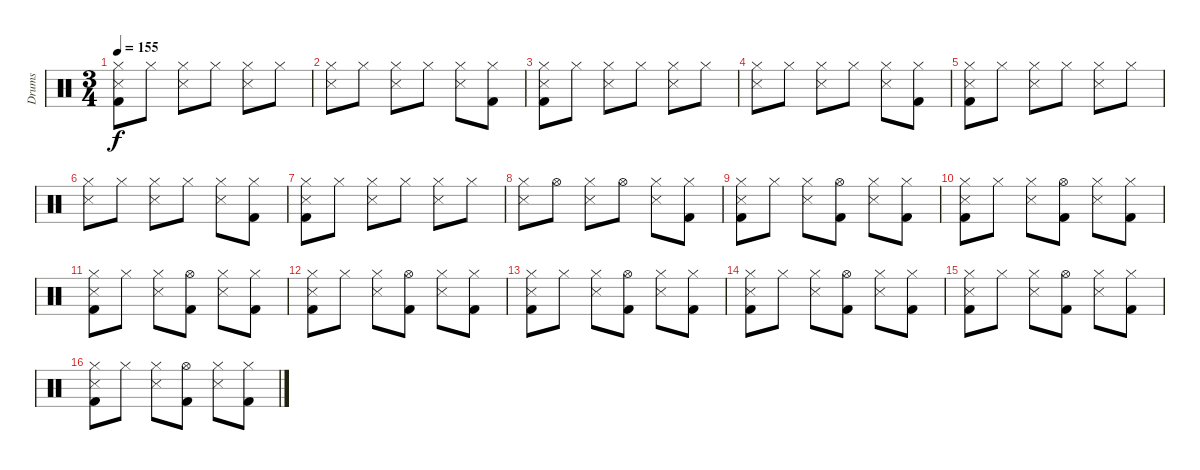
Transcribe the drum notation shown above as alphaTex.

\track ("Drums" "Drums") {instrument percussion}
\staff {score}
\articulation defaults
\ts (3 4)
\tempo 155
\clef neutral
\ks c
("Hi-Hat (closed)" "Snare (side stick) 3" "Kick (hit) 2").8{dy f} "Hi-Hat (closed)".8 ("Hi-Hat (closed)" "Snare (side stick) 3").8 "Hi-Hat (closed)".8 ("Snare (side stick) 3" "Hi-Hat (closed)").8 "Hi-Hat (closed)".8 |
("Hi-Hat (closed)" "Snare (side stick) 3").8 "Hi-Hat (closed)".8 ("Hi-Hat (closed)" "Snare (side stick) 3").8 "Hi-Hat (closed)".8 ("Snare (side stick) 3" "Hi-Hat (closed)").8 ("Kick (hit) 2" "Hi-Hat (closed)").8 |
("Hi-Hat (closed)" "Snare (side stick) 3" "Kick (hit) 2").8 "Hi-Hat (closed)".8 ("Hi-Hat (closed)" "Snare (side stick) 3").8 "Hi-Hat (closed)".8 ("Snare (side stick) 3" "Hi-Hat (closed)").8 "Hi-Hat (closed)".8 |
("Hi-Hat (closed)" "Snare (side stick) 3").8 "Hi-Hat (closed)".8 ("Hi-Hat (closed)" "Snare (side stick) 3").8 "Hi-Hat (closed)".8 ("Snare (side stick) 3" "Hi-Hat (closed)").8 ("Kick (hit) 2" "Hi-Hat (closed)").8 |
("Hi-Hat (closed)" "Snare (side stick) 3" "Kick (hit) 2").8 "Hi-Hat (closed)".8 ("Hi-Hat (closed)" "Snare (side stick) 3").8 "Hi-Hat (closed)".8 ("Snare (side stick) 3" "Hi-Hat (closed)").8 "Hi-Hat (closed)".8 |
("Hi-Hat (closed)" "Snare (side stick) 3").8 "Hi-Hat (closed)".8 ("Hi-Hat (closed)" "Snare (side stick) 3").8 "Hi-Hat (closed)".8 ("Snare (side stick) 3" "Hi-Hat (closed)").8 ("Kick (hit) 2" "Hi-Hat (closed)").8 |
("Hi-Hat (closed)" "Snare (side stick) 3" "Kick (hit) 2").8 "Hi-Hat (closed)".8 ("Hi-Hat (closed)" "Snare (side stick) 3").8 "Hi-Hat (closed)".8 ("Snare (side stick) 3" "Hi-Hat (closed)").8 "Hi-Hat (closed)".8 |
("Hi-Hat (closed)" "Snare (side stick) 3").8 "Hi-Hat (open)".8 ("Snare (side stick) 3" "Hi-Hat (closed)").8 "Hi-Hat (open)".8 ("Hi-Hat (closed)" "Snare (side stick) 3").8 ("Hi-Hat (closed)" "Kick (hit) 2").8 |
("Hi-Hat (closed)" "Kick (hit) 2" "Snare (side stick) 3").8 "Hi-Hat (closed)".8 ("Snare (side stick) 3" "Hi-Hat (closed)").8 ("Hi-Hat (open)" "Kick (hit) 2").8 ("Hi-Hat (closed)" "Snare (side stick) 3").8 ("Hi-Hat (closed)" "Kick (hit) 2").8 |
("Hi-Hat (closed)" "Kick (hit) 2" "Snare (side stick) 3").8 "Hi-Hat (closed)".8 ("Snare (side stick) 3" "Hi-Hat (closed)").8 ("Hi-Hat (open)" "Kick (hit) 2").8 ("Hi-Hat (closed)" "Snare (side stick) 3").8 ("Hi-Hat (closed)" "Kick (hit) 2").8 |
("Hi-Hat (closed)" "Kick (hit) 2" "Snare (side stick) 3").8 "Hi-Hat (closed)".8 ("Snare (side stick) 3" "Hi-Hat (closed)").8 ("Hi-Hat (open)" "Kick (hit) 2").8 ("Hi-Hat (closed)" "Snare (side stick) 3").8 ("Hi-Hat (closed)" "Kick (hit) 2").8 |
("Hi-Hat (closed)" "Kick (hit) 2" "Snare (side stick) 3").8 "Hi-Hat (closed)".8 ("Snare (side stick) 3" "Hi-Hat (closed)").8 ("Hi-Hat (open)" "Kick (hit) 2").8 ("Hi-Hat (closed)" "Snare (side stick) 3").8 ("Hi-Hat (closed)" "Kick (hit) 2").8 |
("Hi-Hat (closed)" "Kick (hit) 2" "Snare (side stick) 3").8 "Hi-Hat (closed)".8 ("Snare (side stick) 3" "Hi-Hat (closed)").8 ("Hi-Hat (open)" "Kick (hit) 2").8 ("Hi-Hat (closed)" "Snare (side stick) 3").8 ("Hi-Hat (closed)" "Kick (hit) 2").8 |
("Hi-Hat (closed)" "Kick (hit) 2" "Snare (side stick) 3").8 "Hi-Hat (closed)".8 ("Snare (side stick) 3" "Hi-Hat (closed)").8 ("Hi-Hat (open)" "Kick (hit) 2").8 ("Hi-Hat (closed)" "Snare (side stick) 3").8 ("Hi-Hat (closed)" "Kick (hit) 2").8 |
("Hi-Hat (closed)" "Kick (hit) 2" "Snare (side stick) 3").8 "Hi-Hat (closed)".8 ("Snare (side stick) 3" "Hi-Hat (closed)").8 ("Hi-Hat (open)" "Kick (hit) 2").8 ("Hi-Hat (closed)" "Snare (side stick) 3").8 ("Hi-Hat (closed)" "Kick (hit) 2").8 |
("Hi-Hat (closed)" "Kick (hit) 2" "Snare (side stick) 3").8 "Hi-Hat (closed)".8 ("Snare (side stick) 3" "Hi-Hat (closed)").8 ("Hi-Hat (open)" "Kick (hit) 2").8 ("Hi-Hat (closed)" "Snare (side stick) 3").8 ("Hi-Hat (closed)" "Kick (hit) 2").8
